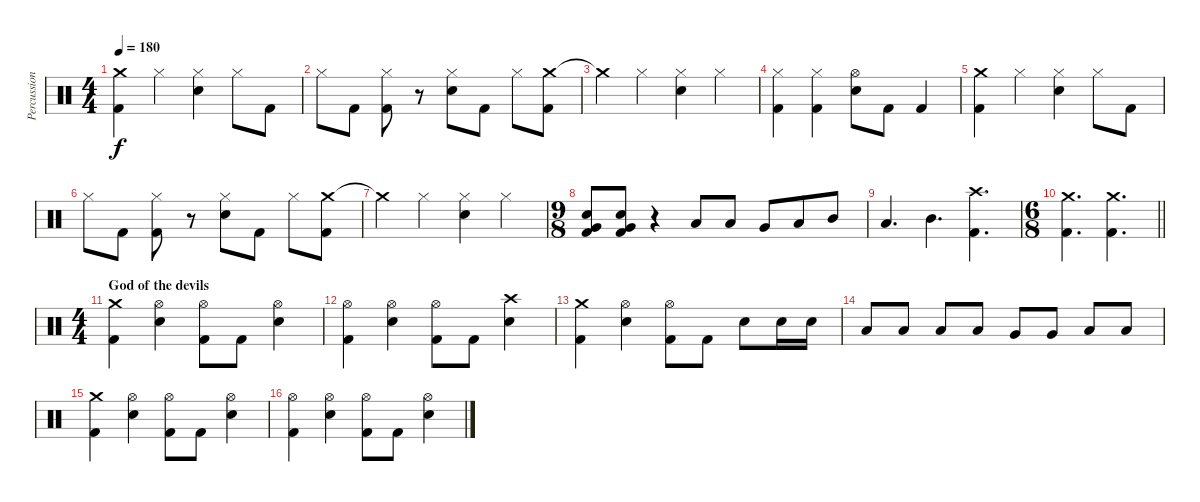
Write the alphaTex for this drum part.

\track ("Percussion" "Percussion") {instrument percussion}
\staff {score}
\articulation defaults
\ts (4 4)
\tempo 180
\clef neutral
\ks c
("Crash medium (hit)" "Kick (hit) 2").4{dy f} "Hi-Hat (closed)".4 ("Hi-Hat (closed)" "Snare (hit) 2").4 "Hi-Hat (closed)".8 "Kick (hit) 2".8 |
"Hi-Hat (closed)".8 "Kick (hit) 2".8 ("Hi-Hat (closed)" "Kick (hit) 2").8 r.8 ("Hi-Hat (closed)" "Snare (hit) 2").8 "Kick (hit) 2".8 "Hi-Hat (closed)".8 ("Crash medium (hit)" "Kick (hit) 2").8 |
"Crash medium (hit)"{t}.4 "Hi-Hat (closed)".4 ("Hi-Hat (closed)" "Snare (hit) 2").4 "Hi-Hat (closed)".4 |
("Hi-Hat (closed)" "Kick (hit) 2").4 ("Hi-Hat (closed)" "Kick (hit) 2").4 ("Hi-Hat (open)" "Snare (hit) 2").8 "Kick (hit) 2".8 "Kick (hit) 2".4 |
("Crash medium (hit)" "Kick (hit) 2").4 "Hi-Hat (closed)".4 ("Hi-Hat (closed)" "Snare (hit) 2").4 "Hi-Hat (closed)".8 "Kick (hit) 2".8 |
"Hi-Hat (closed)".8 "Kick (hit) 2".8 ("Hi-Hat (closed)" "Kick (hit) 2").8 r.8 ("Hi-Hat (closed)" "Snare (hit) 2").8 "Kick (hit) 2".8 "Hi-Hat (closed)".8 ("Crash medium (hit)" "Kick (hit) 2").8 |
"Crash medium (hit)"{t}.4 "Hi-Hat (closed)".4 ("Hi-Hat (closed)" "Snare (hit) 2").4 "Hi-Hat (closed)".4 |
\ts (9 8)
("Snare (hit) 2" "Very Low Tom (hit)" "Kick (hit) 2").8 ("Snare (hit) 2" "Very Low Tom (hit)" "Kick (hit) 2").8 r.4 "Low Tom (hit)".8 "Low Tom (hit)".8 "Very Low Tom (hit)".8 "Low Tom (hit)".8 "Mid Tom (hit)".8 |
"Low Tom (hit)".4{d} "Mid Tom (hit)".4{d} ("Crash high (hit)" "Kick (hit) 2").4{d} |
\ts (6 8)
\barLineRight lightlight
("Crash medium (hit)" "Kick (hit) 2").4{d} ("Crash medium (hit)" "Kick (hit) 2").4{d} |
\ts (4 4)
\section ("" "God of the devils")
("Crash medium (hit)" "Kick (hit) 2").4 ("Hi-Hat (open)" "Snare (hit) 2").4 ("Hi-Hat (open)" "Kick (hit) 2").8 "Kick (hit) 2".8 ("Hi-Hat (open)" "Snare (hit) 2").4 |
("Hi-Hat (open)" "Kick (hit) 2").4 ("Hi-Hat (open)" "Snare (hit) 2").4 ("Hi-Hat (open)" "Kick (hit) 2").8 "Kick (hit) 2".8 ("Crash high (hit)" "Snare (hit) 2").4 |
("Crash medium (hit)" "Kick (hit) 2").4 ("Hi-Hat (open)" "Snare (hit) 2").4 ("Hi-Hat (open)" "Kick (hit) 2").8 "Kick (hit) 2".8 "Snare (hit) 2".8 "Snare (hit) 2".16 "Snare (hit) 2".16 |
"Low Tom (hit)".8 "Low Tom (hit)".8 "Low Tom (hit)".8 "Low Tom (hit)".8 "Very Low Tom (hit)".8 "Very Low Tom (hit)".8 "Low Floor Tom (hit)".8 "Low Floor Tom (hit)".8 |
("Crash medium (hit)" "Kick (hit) 2").4 ("Hi-Hat (open)" "Snare (hit) 2").4 ("Hi-Hat (open)" "Kick (hit) 2").8 "Kick (hit) 2".8 ("Hi-Hat (open)" "Snare (hit) 2").4 |
("Hi-Hat (open)" "Kick (hit) 2").4 ("Hi-Hat (open)" "Snare (hit) 2").4 ("Hi-Hat (open)" "Kick (hit) 2").8 "Kick (hit) 2".8 ("Hi-Hat (open)" "Snare (hit) 2").4
